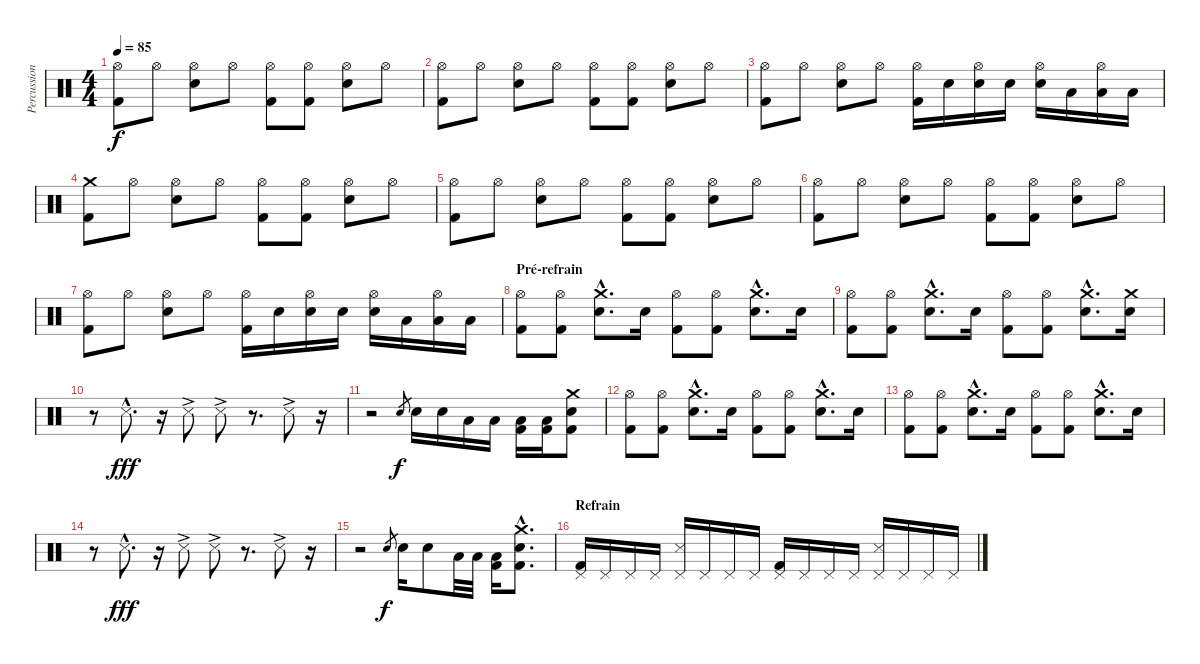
\track ("Percussions" "Percussion") {instrument percussion}
\staff {score}
\articulation defaults
\ts (4 4)
\tempo 85
\clef neutral
\ks c
("Hi-Hat (open)" "Kick (hit) 2").8{dy f} "Hi-Hat (open)".8 ("Hi-Hat (open)" "Snare (hit) 2").8 "Hi-Hat (open)".8 ("Hi-Hat (open)" "Kick (hit) 2").8 ("Hi-Hat (open)" "Kick (hit) 2").8 ("Hi-Hat (open)" "Snare (hit) 2").8 "Hi-Hat (open)".8 |
("Hi-Hat (open)" "Kick (hit) 2").8 "Hi-Hat (open)".8 ("Hi-Hat (open)" "Snare (hit) 2").8 "Hi-Hat (open)".8 ("Hi-Hat (open)" "Kick (hit) 2").8 ("Hi-Hat (open)" "Kick (hit) 2").8 ("Hi-Hat (open)" "Snare (hit) 2").8 "Hi-Hat (open)".8 |
("Hi-Hat (open)" "Kick (hit) 2").8 "Hi-Hat (open)".8 ("Hi-Hat (open)" "Snare (hit) 2").8 "Hi-Hat (open)".8 ("Hi-Hat (open)" "Kick (hit) 2").16 "Snare (hit) 2".16 ("Hi-Hat (open)" "Snare (hit) 2").16 "Snare (hit) 2".16 ("Hi-Hat (open)" "Snare (hit) 2").16 "Low Tom (hit)".16 ("Hi-Hat (open)" "Low Floor Tom (hit)").16 "Low Floor Tom (hit)".16 |
("Crash medium (hit)" "Kick (hit) 2").8 "Hi-Hat (open)".8 ("Hi-Hat (open)" "Snare (hit) 2").8 "Hi-Hat (open)".8 ("Hi-Hat (open)" "Kick (hit) 2").8 ("Hi-Hat (open)" "Kick (hit) 2").8 ("Hi-Hat (open)" "Snare (hit) 2").8 "Hi-Hat (open)".8 |
("Hi-Hat (open)" "Kick (hit) 2").8 "Hi-Hat (open)".8 ("Hi-Hat (open)" "Snare (hit) 2").8 "Hi-Hat (open)".8 ("Hi-Hat (open)" "Kick (hit) 2").8 ("Hi-Hat (open)" "Kick (hit) 2").8 ("Hi-Hat (open)" "Snare (hit) 2").8 "Hi-Hat (open)".8 |
("Hi-Hat (open)" "Kick (hit) 2").8 "Hi-Hat (open)".8 ("Hi-Hat (open)" "Snare (hit) 2").8 "Hi-Hat (open)".8 ("Hi-Hat (open)" "Kick (hit) 2").8 ("Hi-Hat (open)" "Kick (hit) 2").8 ("Hi-Hat (open)" "Snare (hit) 2").8 "Hi-Hat (open)".8 |
("Hi-Hat (open)" "Kick (hit) 2").8 "Hi-Hat (open)".8 ("Hi-Hat (open)" "Snare (hit) 2").8 "Hi-Hat (open)".8 ("Hi-Hat (open)" "Kick (hit) 2").16 "Snare (hit) 2".16 ("Hi-Hat (open)" "Snare (hit) 2").16 "Snare (hit) 2".16 ("Hi-Hat (open)" "Snare (hit) 2").16 "Low Tom (hit)".16 ("Hi-Hat (open)" "Low Floor Tom (hit)").16 "Low Floor Tom (hit)".16 |
\section ("" "Pré-refrain")
("Hi-Hat (open)" "Kick (hit) 2").8 ("Hi-Hat (open)" "Kick (hit) 2").8 ("Crash medium (hit)"{hac} "Snare (hit) 2"{hac}).8{d} "Snare (hit) 2".16 ("Hi-Hat (open)" "Kick (hit) 2").8 ("Hi-Hat (open)" "Kick (hit) 2").8 ("Crash medium (hit)"{hac} "Snare (hit) 2"{hac}).8{d} "Snare (hit) 2".16 |
("Hi-Hat (open)" "Kick (hit) 2").8 ("Hi-Hat (open)" "Kick (hit) 2").8 ("Crash medium (hit)"{hac} "Snare (hit) 2"{hac}).8{d} "Snare (hit) 2".16 ("Hi-Hat (open)" "Kick (hit) 2").8 ("Hi-Hat (open)" "Kick (hit) 2").8 ("Crash medium (hit)"{hac} "Snare (hit) 2"{hac}).8{d} ("Crash medium (hit)" "Snare (hit) 2").16 |
r.8 "Snare (side stick) 3"{hac}.8{d dy fff} r.16 "Snare (side stick) 3"{ac}.8 "Snare (side stick) 3"{ac}.8 r.8{d} "Snare (side stick) 3"{ac}.8 r.16 |
r.2 "Snare (hit) 2".8{gr dy f} "Snare (hit) 2".16 "Snare (hit) 2".16 "Low Tom (hit)".16 "Low Floor Tom (hit)".16 ("Low Floor Tom (hit)" "Kick (hit) 2").16 ("Low Floor Tom (hit)" "Kick (hit) 2").16 ("Crash medium (hit)" "Snare (hit) 2" "Kick (hit) 2").8 |
("Hi-Hat (open)" "Kick (hit) 2").8 ("Hi-Hat (open)" "Kick (hit) 2").8 ("Crash medium (hit)"{hac} "Snare (hit) 2"{hac}).8{d} "Snare (hit) 2".16 ("Hi-Hat (open)" "Kick (hit) 2").8 ("Hi-Hat (open)" "Kick (hit) 2").8 ("Crash medium (hit)"{hac} "Snare (hit) 2"{hac}).8{d} "Snare (hit) 2".16 |
("Hi-Hat (open)" "Kick (hit) 2").8 ("Hi-Hat (open)" "Kick (hit) 2").8 ("Crash medium (hit)"{hac} "Snare (hit) 2"{hac}).8{d} "Snare (hit) 2".16 ("Hi-Hat (open)" "Kick (hit) 2").8 ("Hi-Hat (open)" "Kick (hit) 2").8 ("Crash medium (hit)"{hac} "Snare (hit) 2"{hac}).8{d} "Snare (hit) 2".16 |
r.8 "Snare (side stick) 3"{hac}.8{d dy fff} r.16 "Snare (side stick) 3"{ac}.8 "Snare (side stick) 3"{ac}.8 r.8{d} "Snare (side stick) 3"{ac}.8 r.16 |
r.2 "Snare (hit) 2".8{gr dy f} "Snare (hit) 2".16 "Snare (hit) 2".8 "Low Tom (hit)".32 "Low Floor Tom (hit)".32 ("Low Floor Tom (hit)" "Kick (hit) 2").16 ("Crash medium (hit)"{hac} "Snare (hit) 2"{hac} "Kick (hit) 2"{hac}).8{d} |
\section ("" "Refrain")
("Pedal Hi-Hat (hit)" "Kick (hit) 2").16 "Pedal Hi-Hat (hit)".16 "Pedal Hi-Hat (hit)".16 "Pedal Hi-Hat (hit)".16 ("Pedal Hi-Hat (hit)" "Snare (side stick) 3").16 "Pedal Hi-Hat (hit)".16 "Pedal Hi-Hat (hit)".16 "Pedal Hi-Hat (hit)".16 ("Pedal Hi-Hat (hit)" "Kick (hit) 2").16 "Pedal Hi-Hat (hit)".16 "Pedal Hi-Hat (hit)".16 "Pedal Hi-Hat (hit)".16 ("Pedal Hi-Hat (hit)" "Snare (side stick) 3").16 "Pedal Hi-Hat (hit)".16 "Pedal Hi-Hat (hit)".16 "Pedal Hi-Hat (hit)".16
